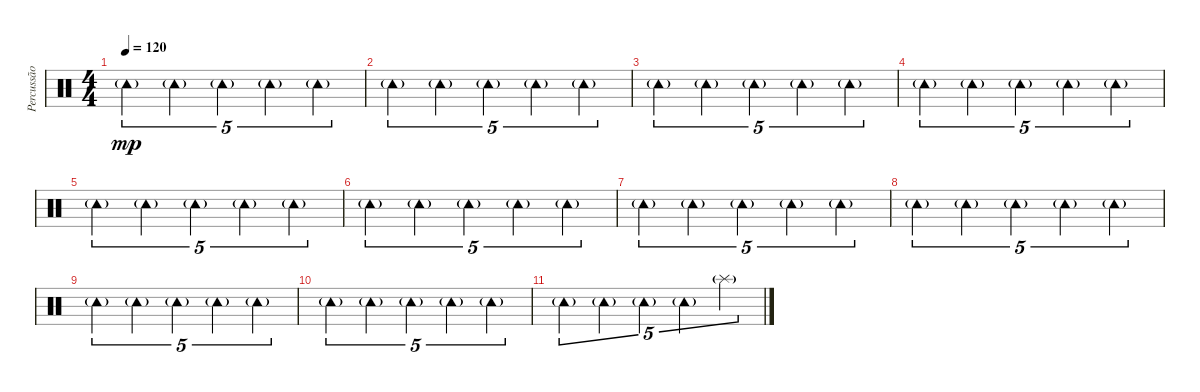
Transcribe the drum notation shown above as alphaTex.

\track ("Percussão" "Percussão") {instrument percussion}
\staff {score}
\articulation defaults
\ts (4 4)
\tempo 120
\clef neutral
\ks c "Tambourine (hit)"{g}.4{tu (5 4) dy mp} "Tambourine (hit)"{g}.4{tu (5 4)} "Tambourine (hit)"{g}.4{tu (5 4)} "Tambourine (hit)"{g}.4{tu (5 4)} "Tambourine (hit)"{g}.4{tu (5 4)}
|
"Tambourine (hit)"{g}.4{tu (5 4)} "Tambourine (hit)"{g}.4{tu (5 4)} "Tambourine (hit)"{g}.4{tu (5 4)} "Tambourine (hit)"{g}.4{tu (5 4)} "Tambourine (hit)"{g}.4{tu (5 4)} |
"Tambourine (hit)"{g}.4{tu (5 4)} "Tambourine (hit)"{g}.4{tu (5 4)} "Tambourine (hit)"{g}.4{tu (5 4)} "Tambourine (hit)"{g}.4{tu (5 4)} "Tambourine (hit)"{g}.4{tu (5 4)} |
"Tambourine (hit)"{g}.4{tu (5 4)} "Tambourine (hit)"{g}.4{tu (5 4)} "Tambourine (hit)"{g}.4{tu (5 4)} "Tambourine (hit)"{g}.4{tu (5 4)} "Tambourine (hit)"{g}.4{tu (5 4)} |
"Tambourine (hit)"{g}.4{tu (5 4)} "Tambourine (hit)"{g}.4{tu (5 4)} "Tambourine (hit)"{g}.4{tu (5 4)} "Tambourine (hit)"{g}.4{tu (5 4)} "Tambourine (hit)"{g}.4{tu (5 4)} |
"Tambourine (hit)"{g}.4{tu (5 4)} "Tambourine (hit)"{g}.4{tu (5 4)} "Tambourine (hit)"{g}.4{tu (5 4)} "Tambourine (hit)"{g}.4{tu (5 4)} "Tambourine (hit)"{g}.4{tu (5 4)} |
"Tambourine (hit)"{g}.4{tu (5 4)} "Tambourine (hit)"{g}.4{tu (5 4)} "Tambourine (hit)"{g}.4{tu (5 4)} "Tambourine (hit)"{g}.4{tu (5 4)} "Tambourine (hit)"{g}.4{tu (5 4)} |
"Tambourine (hit)"{g}.4{tu (5 4)} "Tambourine (hit)"{g}.4{tu (5 4)} "Tambourine (hit)"{g}.4{tu (5 4)} "Tambourine (hit)"{g}.4{tu (5 4)} "Tambourine (hit)"{g}.4{tu (5 4)} |
"Tambourine (hit)"{g}.4{tu (5 4)} "Tambourine (hit)"{g}.4{tu (5 4)} "Tambourine (hit)"{g}.4{tu (5 4)} "Tambourine (hit)"{g}.4{tu (5 4)} "Tambourine (hit)"{g}.4{tu (5 4)} |
"Tambourine (hit)"{g}.4{tu (5 4)} "Tambourine (hit)"{g}.4{tu (5 4)} "Tambourine (hit)"{g}.4{tu (5 4)} "Tambourine (hit)"{g}.4{tu (5 4)} "Tambourine (hit)"{g}.4{tu (5 4)} |
"Tambourine (hit)"{g}.4{tu (5 4)} "Tambourine (hit)"{g}.4{tu (5 4)} "Tambourine (hit)"{g}.4{tu (5 4)} "Tambourine (hit)"{g}.4{tu (5 4)} "Splash (hit)"{g}.4{tu (5 4)}
